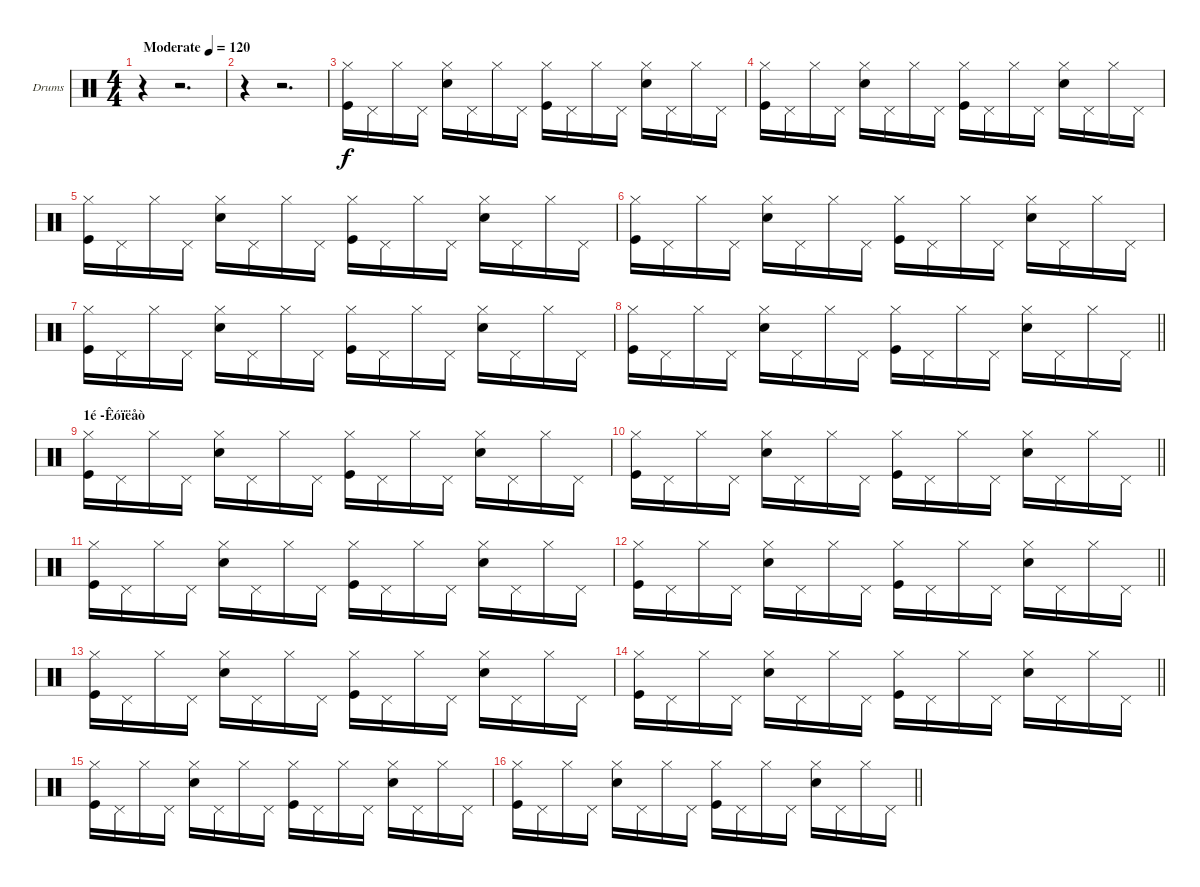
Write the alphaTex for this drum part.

\bracketExtendMode groupsimilarinstruments
\firstSystemTrackNameOrientation horizontal
\otherSystemsTrackNameOrientation horizontal
\track ("Drumkit" "Drums") {instrument percussion}
\staff {score}
\articulation defaults
\ts (4 4)
\beaming (8 2 2 2 2)
\tempo (120 "Moderate")
\clef neutral
\ks c
r.4{dy f} r.2{d} |
r.4 r.2{d} |
("Hi-Hat (closed)" "Kick (hit)").16 "Pedal Hi-Hat (hit)".16 "Hi-Hat (closed)".16 "Pedal Hi-Hat (hit)".16 ("Hi-Hat (closed)" "Snare (hit) 2").16 "Pedal Hi-Hat (hit)".16 "Hi-Hat (closed)".16 "Pedal Hi-Hat (hit)".16 ("Hi-Hat (closed)" "Kick (hit)").16 "Pedal Hi-Hat (hit)".16 "Hi-Hat (closed)".16 "Pedal Hi-Hat (hit)".16 ("Hi-Hat (closed)" "Snare (hit) 2").16 "Pedal Hi-Hat (hit)".16 "Hi-Hat (closed)".16 "Pedal Hi-Hat (hit)".16 |
("Hi-Hat (closed)" "Kick (hit)").16 "Pedal Hi-Hat (hit)".16 "Hi-Hat (closed)".16 "Pedal Hi-Hat (hit)".16 ("Hi-Hat (closed)" "Snare (hit) 2").16 "Pedal Hi-Hat (hit)".16 "Hi-Hat (closed)".16 "Pedal Hi-Hat (hit)".16 ("Hi-Hat (closed)" "Kick (hit)").16 "Pedal Hi-Hat (hit)".16 "Hi-Hat (closed)".16 "Pedal Hi-Hat (hit)".16 ("Hi-Hat (closed)" "Snare (hit) 2").16 "Pedal Hi-Hat (hit)".16 "Hi-Hat (closed)".16 "Pedal Hi-Hat (hit)".16 |
("Hi-Hat (closed)" "Kick (hit)").16 "Pedal Hi-Hat (hit)".16 "Hi-Hat (closed)".16 "Pedal Hi-Hat (hit)".16 ("Hi-Hat (closed)" "Snare (hit) 2").16 "Pedal Hi-Hat (hit)".16 "Hi-Hat (closed)".16 "Pedal Hi-Hat (hit)".16 ("Hi-Hat (closed)" "Kick (hit)").16 "Pedal Hi-Hat (hit)".16 "Hi-Hat (closed)".16 "Pedal Hi-Hat (hit)".16 ("Hi-Hat (closed)" "Snare (hit) 2").16 "Pedal Hi-Hat (hit)".16 "Hi-Hat (closed)".16 "Pedal Hi-Hat (hit)".16 |
("Hi-Hat (closed)" "Kick (hit)").16 "Pedal Hi-Hat (hit)".16 "Hi-Hat (closed)".16 "Pedal Hi-Hat (hit)".16 ("Hi-Hat (closed)" "Snare (hit) 2").16 "Pedal Hi-Hat (hit)".16 "Hi-Hat (closed)".16 "Pedal Hi-Hat (hit)".16 ("Hi-Hat (closed)" "Kick (hit)").16 "Pedal Hi-Hat (hit)".16 "Hi-Hat (closed)".16 "Pedal Hi-Hat (hit)".16 ("Hi-Hat (closed)" "Snare (hit) 2").16 "Pedal Hi-Hat (hit)".16 "Hi-Hat (closed)".16 "Pedal Hi-Hat (hit)".16 |
("Hi-Hat (closed)" "Kick (hit)").16 "Pedal Hi-Hat (hit)".16 "Hi-Hat (closed)".16 "Pedal Hi-Hat (hit)".16 ("Hi-Hat (closed)" "Snare (hit) 2").16 "Pedal Hi-Hat (hit)".16 "Hi-Hat (closed)".16 "Pedal Hi-Hat (hit)".16 ("Hi-Hat (closed)" "Kick (hit)").16 "Pedal Hi-Hat (hit)".16 "Hi-Hat (closed)".16 "Pedal Hi-Hat (hit)".16 ("Hi-Hat (closed)" "Snare (hit) 2").16 "Pedal Hi-Hat (hit)".16 "Hi-Hat (closed)".16 "Pedal Hi-Hat (hit)".16 |
\barLineRight lightlight
("Hi-Hat (closed)" "Kick (hit)").16 "Pedal Hi-Hat (hit)".16 "Hi-Hat (closed)".16 "Pedal Hi-Hat (hit)".16 ("Hi-Hat (closed)" "Snare (hit) 2").16 "Pedal Hi-Hat (hit)".16 "Hi-Hat (closed)".16 "Pedal Hi-Hat (hit)".16 ("Hi-Hat (closed)" "Kick (hit)").16 "Pedal Hi-Hat (hit)".16 "Hi-Hat (closed)".16 "Pedal Hi-Hat (hit)".16 ("Hi-Hat (closed)" "Snare (hit) 2").16 "Pedal Hi-Hat (hit)".16 "Hi-Hat (closed)".16 "Pedal Hi-Hat (hit)".16 |
\section ("" "1é -Êóïëåò")
("Hi-Hat (closed)" "Kick (hit)").16 "Pedal Hi-Hat (hit)".16 "Hi-Hat (closed)".16 "Pedal Hi-Hat (hit)".16 ("Hi-Hat (closed)" "Snare (hit) 2").16 "Pedal Hi-Hat (hit)".16 "Hi-Hat (closed)".16 "Pedal Hi-Hat (hit)".16 ("Hi-Hat (closed)" "Kick (hit)").16 "Pedal Hi-Hat (hit)".16 "Hi-Hat (closed)".16 "Pedal Hi-Hat (hit)".16 ("Hi-Hat (closed)" "Snare (hit) 2").16 "Pedal Hi-Hat (hit)".16 "Hi-Hat (closed)".16 "Pedal Hi-Hat (hit)".16 |
\barLineRight lightlight
("Hi-Hat (closed)" "Kick (hit)").16 "Pedal Hi-Hat (hit)".16 "Hi-Hat (closed)".16 "Pedal Hi-Hat (hit)".16 ("Hi-Hat (closed)" "Snare (hit) 2").16 "Pedal Hi-Hat (hit)".16 "Hi-Hat (closed)".16 "Pedal Hi-Hat (hit)".16 ("Hi-Hat (closed)" "Kick (hit)").16 "Pedal Hi-Hat (hit)".16 "Hi-Hat (closed)".16 "Pedal Hi-Hat (hit)".16 ("Hi-Hat (closed)" "Snare (hit) 2").16 "Pedal Hi-Hat (hit)".16 "Hi-Hat (closed)".16 "Pedal Hi-Hat (hit)".16 |
("Hi-Hat (closed)" "Kick (hit)").16 "Pedal Hi-Hat (hit)".16 "Hi-Hat (closed)".16 "Pedal Hi-Hat (hit)".16 ("Hi-Hat (closed)" "Snare (hit) 2").16 "Pedal Hi-Hat (hit)".16 "Hi-Hat (closed)".16 "Pedal Hi-Hat (hit)".16 ("Hi-Hat (closed)" "Kick (hit)").16 "Pedal Hi-Hat (hit)".16 "Hi-Hat (closed)".16 "Pedal Hi-Hat (hit)".16 ("Hi-Hat (closed)" "Snare (hit) 2").16 "Pedal Hi-Hat (hit)".16 "Hi-Hat (closed)".16 "Pedal Hi-Hat (hit)".16 |
\barLineRight lightlight
("Hi-Hat (closed)" "Kick (hit)").16 "Pedal Hi-Hat (hit)".16 "Hi-Hat (closed)".16 "Pedal Hi-Hat (hit)".16 ("Hi-Hat (closed)" "Snare (hit) 2").16 "Pedal Hi-Hat (hit)".16 "Hi-Hat (closed)".16 "Pedal Hi-Hat (hit)".16 ("Hi-Hat (closed)" "Kick (hit)").16 "Pedal Hi-Hat (hit)".16 "Hi-Hat (closed)".16 "Pedal Hi-Hat (hit)".16 ("Hi-Hat (closed)" "Snare (hit) 2").16 "Pedal Hi-Hat (hit)".16 "Hi-Hat (closed)".16 "Pedal Hi-Hat (hit)".16 |
("Hi-Hat (closed)" "Kick (hit)").16 "Pedal Hi-Hat (hit)".16 "Hi-Hat (closed)".16 "Pedal Hi-Hat (hit)".16 ("Hi-Hat (closed)" "Snare (hit) 2").16 "Pedal Hi-Hat (hit)".16 "Hi-Hat (closed)".16 "Pedal Hi-Hat (hit)".16 ("Hi-Hat (closed)" "Kick (hit)").16 "Pedal Hi-Hat (hit)".16 "Hi-Hat (closed)".16 "Pedal Hi-Hat (hit)".16 ("Hi-Hat (closed)" "Snare (hit) 2").16 "Pedal Hi-Hat (hit)".16 "Hi-Hat (closed)".16 "Pedal Hi-Hat (hit)".16 |
\barLineRight lightlight
("Hi-Hat (closed)" "Kick (hit)").16 "Pedal Hi-Hat (hit)".16 "Hi-Hat (closed)".16 "Pedal Hi-Hat (hit)".16 ("Hi-Hat (closed)" "Snare (hit) 2").16 "Pedal Hi-Hat (hit)".16 "Hi-Hat (closed)".16 "Pedal Hi-Hat (hit)".16 ("Hi-Hat (closed)" "Kick (hit)").16 "Pedal Hi-Hat (hit)".16 "Hi-Hat (closed)".16 "Pedal Hi-Hat (hit)".16 ("Hi-Hat (closed)" "Snare (hit) 2").16 "Pedal Hi-Hat (hit)".16 "Hi-Hat (closed)".16 "Pedal Hi-Hat (hit)".16 |
("Hi-Hat (closed)" "Kick (hit)").16 "Pedal Hi-Hat (hit)".16 "Hi-Hat (closed)".16 "Pedal Hi-Hat (hit)".16 ("Hi-Hat (closed)" "Snare (hit) 2").16 "Pedal Hi-Hat (hit)".16 "Hi-Hat (closed)".16 "Pedal Hi-Hat (hit)".16 ("Hi-Hat (closed)" "Kick (hit)").16 "Pedal Hi-Hat (hit)".16 "Hi-Hat (closed)".16 "Pedal Hi-Hat (hit)".16 ("Hi-Hat (closed)" "Snare (hit) 2").16 "Pedal Hi-Hat (hit)".16 "Hi-Hat (closed)".16 "Pedal Hi-Hat (hit)".16 |
\barLineRight lightlight
("Hi-Hat (closed)" "Kick (hit)").16 "Pedal Hi-Hat (hit)".16 "Hi-Hat (closed)".16 "Pedal Hi-Hat (hit)".16 ("Hi-Hat (closed)" "Snare (hit) 2").16 "Pedal Hi-Hat (hit)".16 "Hi-Hat (closed)".16 "Pedal Hi-Hat (hit)".16 ("Hi-Hat (closed)" "Kick (hit)").16 "Pedal Hi-Hat (hit)".16 "Hi-Hat (closed)".16 "Pedal Hi-Hat (hit)".16 ("Hi-Hat (closed)" "Snare (hit) 2").16 "Pedal Hi-Hat (hit)".16 "Hi-Hat (closed)".16 "Pedal Hi-Hat (hit)".16
